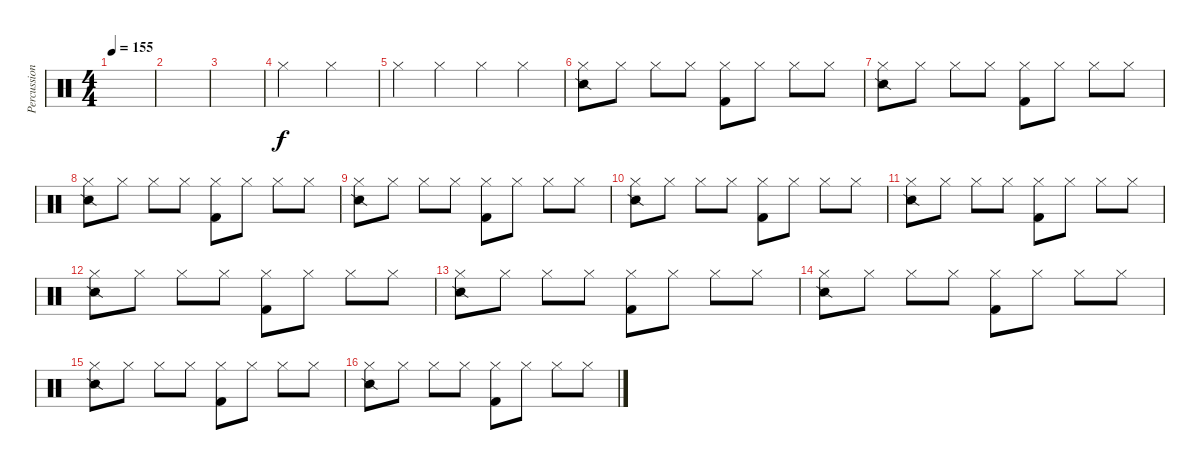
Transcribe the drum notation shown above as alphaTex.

\track ("Percussions" "Percussion") {instrument percussion}
\staff {score}
\articulation defaults
\ts (4 4)
\tempo 155
\clef neutral
\ks c
|
|
|
"Hi-Hat (closed)".2 "Hi-Hat (closed)".2 |
"Hi-Hat (closed)".4 "Hi-Hat (closed)".4 "Hi-Hat (closed)".4 "Hi-Hat (closed)".4 |
("Hi-Hat (closed)" "Snare (side stick) 2").8 "Hi-Hat (closed)".8 "Hi-Hat (closed)".8 "Hi-Hat (closed)".8 ("Hi-Hat (closed)" "Kick (hit) 2").8 "Hi-Hat (closed)".8 "Hi-Hat (closed)".8 "Hi-Hat (closed)".8 |
("Hi-Hat (closed)" "Snare (side stick) 2").8 "Hi-Hat (closed)".8 "Hi-Hat (closed)".8 "Hi-Hat (closed)".8 ("Hi-Hat (closed)" "Kick (hit) 2").8 "Hi-Hat (closed)".8 "Hi-Hat (closed)".8 "Hi-Hat (closed)".8 |
("Hi-Hat (closed)" "Snare (side stick) 2").8 "Hi-Hat (closed)".8 "Hi-Hat (closed)".8 "Hi-Hat (closed)".8 ("Hi-Hat (closed)" "Kick (hit) 2").8 "Hi-Hat (closed)".8 "Hi-Hat (closed)".8 "Hi-Hat (closed)".8 |
("Hi-Hat (closed)" "Snare (side stick) 2").8 "Hi-Hat (closed)".8 "Hi-Hat (closed)".8 "Hi-Hat (closed)".8 ("Hi-Hat (closed)" "Kick (hit) 2").8 "Hi-Hat (closed)".8 "Hi-Hat (closed)".8 "Hi-Hat (closed)".8 |
("Hi-Hat (closed)" "Snare (side stick) 2").8 "Hi-Hat (closed)".8 "Hi-Hat (closed)".8 "Hi-Hat (closed)".8 ("Hi-Hat (closed)" "Kick (hit) 2").8 "Hi-Hat (closed)".8 "Hi-Hat (closed)".8 "Hi-Hat (closed)".8 |
("Hi-Hat (closed)" "Snare (side stick) 2").8 "Hi-Hat (closed)".8 "Hi-Hat (closed)".8 "Hi-Hat (closed)".8 ("Hi-Hat (closed)" "Kick (hit) 2").8 "Hi-Hat (closed)".8 "Hi-Hat (closed)".8 "Hi-Hat (closed)".8 |
("Hi-Hat (closed)" "Snare (side stick) 2").8 "Hi-Hat (closed)".8 "Hi-Hat (closed)".8 "Hi-Hat (closed)".8 ("Hi-Hat (closed)" "Kick (hit) 2").8 "Hi-Hat (closed)".8 "Hi-Hat (closed)".8 "Hi-Hat (closed)".8 |
("Hi-Hat (closed)" "Snare (side stick) 2").8 "Hi-Hat (closed)".8 "Hi-Hat (closed)".8 "Hi-Hat (closed)".8 ("Hi-Hat (closed)" "Kick (hit) 2").8 "Hi-Hat (closed)".8 "Hi-Hat (closed)".8 "Hi-Hat (closed)".8 |
("Hi-Hat (closed)" "Snare (side stick) 2").8 "Hi-Hat (closed)".8 "Hi-Hat (closed)".8 "Hi-Hat (closed)".8 ("Hi-Hat (closed)" "Kick (hit) 2").8 "Hi-Hat (closed)".8 "Hi-Hat (closed)".8 "Hi-Hat (closed)".8 |
("Hi-Hat (closed)" "Snare (side stick) 2").8 "Hi-Hat (closed)".8 "Hi-Hat (closed)".8 "Hi-Hat (closed)".8 ("Hi-Hat (closed)" "Kick (hit) 2").8 "Hi-Hat (closed)".8 "Hi-Hat (closed)".8 "Hi-Hat (closed)".8 |
("Hi-Hat (closed)" "Snare (side stick) 2").8 "Hi-Hat (closed)".8 "Hi-Hat (closed)".8 "Hi-Hat (closed)".8 ("Hi-Hat (closed)" "Kick (hit) 2").8 "Hi-Hat (closed)".8 "Hi-Hat (closed)".8 "Hi-Hat (closed)".8
